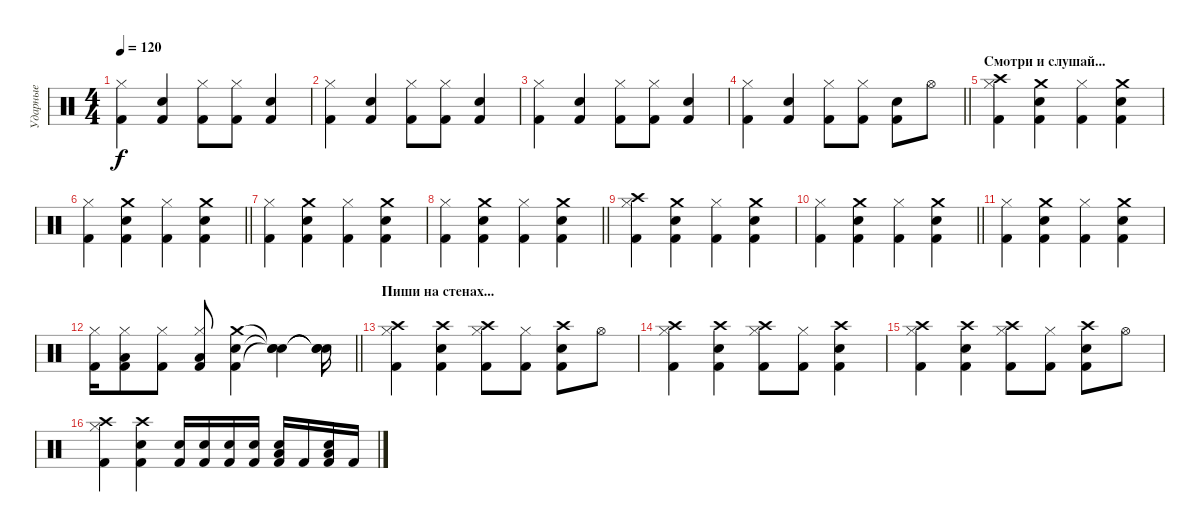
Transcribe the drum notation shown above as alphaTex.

\track ("Ударные" "Ударные") {instrument percussion}
\staff {score}
\articulation defaults
\ts (4 4)
\tempo 120
\clef neutral
\ks c
("Kick (hit) 2" "Hi-Hat (closed)").4{dy f} ("Snare (hit) 2" "Kick (hit) 2").4 ("Kick (hit) 2" "Hi-Hat (closed)").8 ("Kick (hit) 2" "Hi-Hat (closed)").8 ("Snare (hit) 2" "Kick (hit) 2").4 |
("Kick (hit) 2" "Hi-Hat (closed)").4 ("Snare (hit) 2" "Kick (hit) 2").4 ("Kick (hit) 2" "Hi-Hat (closed)").8 ("Kick (hit) 2" "Hi-Hat (closed)").8 ("Snare (hit) 2" "Kick (hit) 2").4 |
("Kick (hit) 2" "Hi-Hat (closed)").4 ("Snare (hit) 2" "Kick (hit) 2").4 ("Kick (hit) 2" "Hi-Hat (closed)").8 ("Kick (hit) 2" "Hi-Hat (closed)").8 ("Snare (hit) 2" "Kick (hit) 2").4 |
\barLineRight lightlight
("Kick (hit) 2" "Hi-Hat (closed)").4 ("Snare (hit) 2" "Kick (hit) 2").4 ("Kick (hit) 2" "Hi-Hat (closed)").8 ("Kick (hit) 2" "Hi-Hat (closed)").8 ("Snare (hit) 2" "Kick (hit) 2").8 "Hi-Hat (open)".8 |
\section ("" "Смотри и слушай...")
("Kick (hit) 2" "Hi-Hat (closed)" "Crash high (hit)").4 ("Snare (hit) 2" "Kick (hit) 2" "Crash medium (hit)").4 ("Kick (hit) 2" "Hi-Hat (closed)").4 ("Snare (hit) 2" "Kick (hit) 2" "Crash medium (hit)").4 |
\barLineRight lightlight
("Kick (hit) 2" "Hi-Hat (closed)").4 ("Snare (hit) 2" "Kick (hit) 2" "Crash medium (hit)").4 ("Kick (hit) 2" "Hi-Hat (closed)").4 ("Snare (hit) 2" "Kick (hit) 2" "Crash medium (hit)").4 |
("Kick (hit) 2" "Hi-Hat (closed)").4 ("Snare (hit) 2" "Kick (hit) 2" "Crash medium (hit)").4 ("Kick (hit) 2" "Hi-Hat (closed)").4 ("Snare (hit) 2" "Kick (hit) 2" "Crash medium (hit)").4 |
\barLineRight lightlight
("Kick (hit) 2" "Hi-Hat (closed)").4 ("Snare (hit) 2" "Kick (hit) 2" "Crash medium (hit)").4 ("Kick (hit) 2" "Hi-Hat (closed)").4 ("Snare (hit) 2" "Kick (hit) 2" "Crash medium (hit)").4 |
("Kick (hit) 2" "Hi-Hat (closed)" "Crash high (hit)").4 ("Snare (hit) 2" "Kick (hit) 2" "Crash medium (hit)").4 ("Kick (hit) 2" "Hi-Hat (closed)").4 ("Snare (hit) 2" "Kick (hit) 2" "Crash medium (hit)").4 |
\barLineRight lightlight
("Kick (hit) 2" "Hi-Hat (closed)").4 ("Snare (hit) 2" "Kick (hit) 2" "Crash medium (hit)").4 ("Kick (hit) 2" "Hi-Hat (closed)").4 ("Snare (hit) 2" "Kick (hit) 2" "Crash medium (hit)").4 |
("Kick (hit) 2" "Hi-Hat (closed)").4 ("Snare (hit) 2" "Kick (hit) 2" "Crash medium (hit)").4 ("Kick (hit) 2" "Hi-Hat (closed)").4 ("Snare (hit) 2" "Kick (hit) 2" "Crash medium (hit)").4 |
\barLineRight lightlight
("Kick (hit) 2" "Hi-Hat (closed)").16 ("Low Tom (hit)" "Kick (hit) 2" "Hi-Hat (closed)").8 ("Kick (hit) 2" "Hi-Hat (closed)").8 ("Low Tom (hit)" "Kick (hit) 2" "Hi-Hat (closed)").8 ("Snare (hit) 2" "Kick (hit) 2" "Crash medium (hit)").4 ("Snare (hit)"{t} "Snare (hit)"{t} "Snare (hit)"{t}).4 ("Snare (hit)"{t} "Snare (hit)"{t} "Snare (hit)"{t}).16 |
\section ("" "Пиши на стенах...")
("Kick (hit) 2" "Hi-Hat (closed)" "Crash high (hit)").4{volume 16} ("Snare (hit) 2" "Kick (hit) 2" "Crash high (hit)").4 ("Kick (hit) 2" "Hi-Hat (closed)" "Crash high (hit)").8 ("Kick (hit) 2" "Hi-Hat (closed)").8 ("Snare (hit) 2" "Kick (hit) 2" "Crash high (hit)").8 "Hi-Hat (open)".8 |
("Kick (hit) 2" "Hi-Hat (closed)" "Crash high (hit)").4 ("Snare (hit) 2" "Kick (hit) 2" "Crash high (hit)").4 ("Kick (hit) 2" "Hi-Hat (closed)" "Crash high (hit)").8 ("Kick (hit) 2" "Hi-Hat (closed)").8 ("Snare (hit) 2" "Kick (hit) 2" "Crash high (hit)").4 |
("Kick (hit) 2" "Hi-Hat (closed)" "Crash high (hit)").4 ("Snare (hit) 2" "Kick (hit) 2" "Crash high (hit)").4 ("Kick (hit) 2" "Hi-Hat (closed)" "Crash high (hit)").8 ("Kick (hit) 2" "Hi-Hat (closed)").8 ("Snare (hit) 2" "Kick (hit) 2" "Crash high (hit)").8 "Hi-Hat (open)".8 |
("Kick (hit) 2" "Hi-Hat (closed)" "Crash high (hit)").4 ("Snare (hit) 2" "Kick (hit) 2" "Crash high (hit)").4 ("Electric Snare (hit)" "Kick (hit) 2").16 ("Electric Snare (hit)" "Kick (hit) 2").16 ("Electric Snare (hit)" "Kick (hit) 2").16 ("Electric Snare (hit)" "Kick (hit) 2").16 ("Low Tom (hit)" "Electric Snare (hit)" "Kick (hit) 2").16 "Kick (hit) 2".16 ("Low Tom (hit)" "Electric Snare (hit)" "Kick (hit) 2").16 "Kick (hit) 2".16
